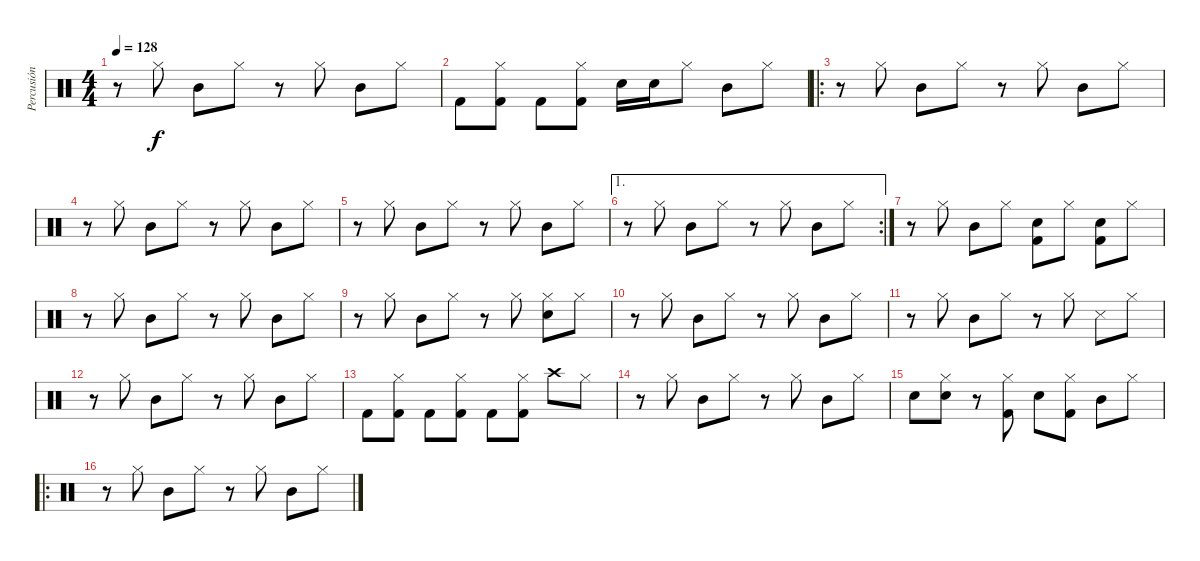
\track ("Percusión" "Percusión") {instrument percussion}
\staff {score}
\articulation defaults
\ts (4 4)
\tempo 128
\clef neutral
\ks c
r.8{dy f} "Hi-Hat (closed)".8 "Mid Tom (hit)".8 "Hi-Hat (closed)".8 r.8 "Hi-Hat (closed)".8 "Mid Tom (hit)".8 "Hi-Hat (closed)".8 |
"Kick (hit) 2".8 ("Hi-Hat (closed)" "Kick (hit) 2").8 "Kick (hit) 2".8 ("Hi-Hat (closed)" "Kick (hit) 2").8 "Electric Snare (hit)".16 "Electric Snare (hit)".16 "Hi-Hat (closed)".8 "Mid Tom (hit)".8 "Hi-Hat (closed)".8 |
\ro
r.8 "Hi-Hat (closed)".8 "Mid Tom (hit)".8 "Hi-Hat (closed)".8 r.8 "Hi-Hat (closed)".8 "Mid Tom (hit)".8 "Hi-Hat (closed)".8 |
r.8 "Hi-Hat (closed)".8 "Mid Tom (hit)".8 "Hi-Hat (closed)".8 r.8 "Hi-Hat (closed)".8 "Mid Tom (hit)".8 "Hi-Hat (closed)".8 |
r.8 "Hi-Hat (closed)".8 "Mid Tom (hit)".8 "Hi-Hat (closed)".8 r.8 "Hi-Hat (closed)".8 "Mid Tom (hit)".8 "Hi-Hat (closed)".8 |
\ae 1
\rc 2
r.8 "Hi-Hat (closed)".8 "Mid Tom (hit)".8 "Hi-Hat (closed)".8 r.8 "Hi-Hat (closed)".8 "Mid Tom (hit)".8 "Hi-Hat (closed)".8 |
r.8 "Hi-Hat (closed)".8 "Mid Tom (hit)".8 "Hi-Hat (closed)".8 ("Kick (hit) 2" "Electric Snare (hit)").8 "Hi-Hat (closed)".8 ("Kick (hit) 2" "Electric Snare (hit)").8 "Hi-Hat (closed)".8 |
r.8 "Hi-Hat (closed)".8 "Mid Tom (hit)".8 "Hi-Hat (closed)".8 r.8 "Hi-Hat (closed)".8 "Mid Tom (hit)".8 "Hi-Hat (closed)".8 |
r.8 "Hi-Hat (closed)".8 "Mid Tom (hit)".8 "Hi-Hat (closed)".8 r.8 "Hi-Hat (closed)".8 ("Hi-Hat (closed)" "Electric Snare (hit)").8 "Hi-Hat (closed)".8 |
r.8 "Hi-Hat (closed)".8 "Mid Tom (hit)".8 "Hi-Hat (closed)".8 r.8 "Hi-Hat (closed)".8 "Mid Tom (hit)".8 "Hi-Hat (closed)".8 |
r.8 "Hi-Hat (closed)".8 "Mid Tom (hit)".8 "Hi-Hat (closed)".8 r.8 "Hi-Hat (closed)".8 "Snare (side stick) 3".8 "Hi-Hat (closed)".8 |
r.8 "Hi-Hat (closed)".8 "Mid Tom (hit)".8 "Hi-Hat (closed)".8 r.8 "Hi-Hat (closed)".8 "Mid Tom (hit)".8 "Hi-Hat (closed)".8 |
"Kick (hit) 2".8 ("Hi-Hat (closed)" "Kick (hit) 2").8 "Kick (hit) 2".8 ("Hi-Hat (closed)" "Kick (hit) 2").8 "Kick (hit) 2".8 ("Hi-Hat (closed)" "Kick (hit) 2").8 "Crash high (hit)".8 "Hi-Hat (closed)".8 |
r.8 "Hi-Hat (closed)".8 "Mid Tom (hit)".8 "Hi-Hat (closed)".8 r.8 "Hi-Hat (closed)".8 "Mid Tom (hit)".8 "Hi-Hat (closed)".8 |
"Electric Snare (hit)".8 ("Hi-Hat (closed)" "Electric Snare (hit)").8 r.8 ("Hi-Hat (closed)" "Kick (hit) 2").8 "Electric Snare (hit)".8 ("Hi-Hat (closed)" "Kick (hit) 2").8 "Mid Tom (hit)".8 "Hi-Hat (closed)".8 |
\ro
r.8 "Hi-Hat (closed)".8 "Mid Tom (hit)".8 "Hi-Hat (closed)".8 r.8 "Hi-Hat (closed)".8 "Mid Tom (hit)".8 "Hi-Hat (closed)".8
